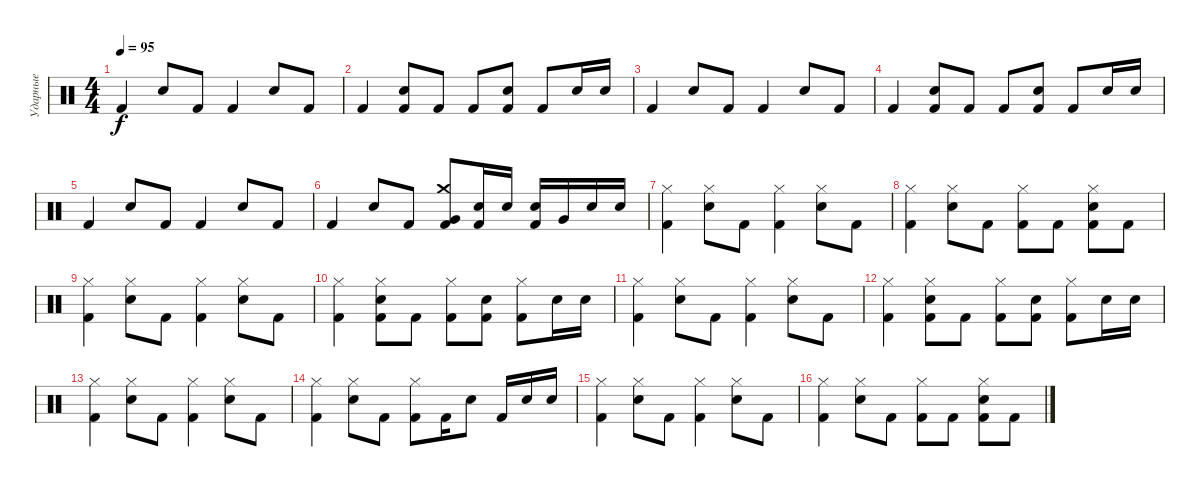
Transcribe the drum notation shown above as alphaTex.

\track ("Ударные" "Ударные") {instrument percussion}
\staff {score}
\articulation defaults
\ts (4 4)
\tempo 95
\clef neutral
\ks c "Kick (hit) 2".4{dy f} "Snare (hit) 2".8 "Kick (hit) 2".8 "Kick (hit) 2".4 "Snare (hit) 2".8 "Kick (hit) 2".8
|
"Kick (hit) 2".4 ("Snare (hit) 2" "Kick (hit) 2").8 "Kick (hit) 2".8 "Kick (hit) 2".8 ("Snare (hit) 2" "Kick (hit) 2").8 "Kick (hit) 2".8 "Snare (hit) 2".16 "Snare (hit) 2".16 |
"Kick (hit) 2".4 "Snare (hit) 2".8 "Kick (hit) 2".8 "Kick (hit) 2".4 "Snare (hit) 2".8 "Kick (hit) 2".8 |
"Kick (hit) 2".4 ("Snare (hit) 2" "Kick (hit) 2").8 "Kick (hit) 2".8 "Kick (hit) 2".8 ("Snare (hit) 2" "Kick (hit) 2").8 "Kick (hit) 2".8 "Snare (hit) 2".16 "Snare (hit) 2".16 |
"Kick (hit) 2".4 "Snare (hit) 2".8 "Kick (hit) 2".8 "Kick (hit) 2".4 "Snare (hit) 2".8 "Kick (hit) 2".8 |
"Kick (hit) 2".4 "Snare (hit) 2".8 "Kick (hit) 2".8 ("Crash medium (hit)" "Very Low Tom (hit)" "Kick (hit) 2").8 ("Snare (hit) 2" "Kick (hit) 2").16 "Snare (hit) 2".16 ("Snare (hit) 2" "Kick (hit) 2").16 "Very Low Tom (hit)".16 "Snare (hit) 2".16 "Snare (hit) 2".16 |
("Hi-Hat (closed)" "Kick (hit) 2").4 ("Hi-Hat (closed)" "Snare (hit) 2").8 "Kick (hit) 2".8 ("Hi-Hat (closed)" "Kick (hit) 2").4 ("Hi-Hat (closed)" "Snare (hit) 2").8 "Kick (hit) 2".8 |
("Hi-Hat (closed)" "Kick (hit) 2").4 ("Hi-Hat (closed)" "Snare (hit) 2").8 "Kick (hit) 2".8 ("Hi-Hat (closed)" "Kick (hit) 2").8 "Kick (hit) 2".8 ("Hi-Hat (closed)" "Snare (hit) 2" "Kick (hit) 2").8 "Kick (hit) 2".8 |
("Hi-Hat (closed)" "Kick (hit) 2").4 ("Hi-Hat (closed)" "Snare (hit) 2").8 "Kick (hit) 2".8 ("Hi-Hat (closed)" "Kick (hit) 2").4 ("Hi-Hat (closed)" "Snare (hit) 2").8 "Kick (hit) 2".8 |
("Hi-Hat (closed)" "Kick (hit) 2").4 ("Hi-Hat (closed)" "Snare (hit) 2" "Kick (hit) 2").8 "Kick (hit) 2".8 ("Hi-Hat (closed)" "Kick (hit) 2").8 ("Snare (hit) 2" "Kick (hit) 2").8 ("Hi-Hat (closed)" "Kick (hit) 2").8 "Snare (hit) 2".16 "Snare (hit) 2".16 |
("Hi-Hat (closed)" "Kick (hit) 2").4 ("Hi-Hat (closed)" "Snare (hit) 2").8 "Kick (hit) 2".8 ("Hi-Hat (closed)" "Kick (hit) 2").4 ("Hi-Hat (closed)" "Snare (hit) 2").8 "Kick (hit) 2".8 |
("Hi-Hat (closed)" "Kick (hit) 2").4 ("Hi-Hat (closed)" "Snare (hit) 2" "Kick (hit) 2").8 "Kick (hit) 2".8 ("Hi-Hat (closed)" "Kick (hit) 2").8 ("Snare (hit) 2" "Kick (hit) 2").8 ("Hi-Hat (closed)" "Kick (hit) 2").8 "Snare (hit) 2".16 "Snare (hit) 2".16 |
("Hi-Hat (closed)" "Kick (hit) 2").4 ("Hi-Hat (closed)" "Snare (hit) 2").8 "Kick (hit) 2".8 ("Hi-Hat (closed)" "Kick (hit) 2").4 ("Hi-Hat (closed)" "Snare (hit) 2").8 "Kick (hit) 2".8 |
("Hi-Hat (closed)" "Kick (hit) 2").4 ("Hi-Hat (closed)" "Snare (hit) 2").8 "Kick (hit) 2".8 ("Hi-Hat (closed)" "Kick (hit) 2").8 "Kick (hit) 2".16 "Snare (hit) 2".8 "Kick (hit) 2".16 "Snare (hit) 2".16 "Snare (hit) 2".16 |
("Hi-Hat (closed)" "Kick (hit) 2").4 ("Hi-Hat (closed)" "Snare (hit) 2").8 "Kick (hit) 2".8 ("Hi-Hat (closed)" "Kick (hit) 2").4 ("Hi-Hat (closed)" "Snare (hit) 2").8 "Kick (hit) 2".8 |
("Hi-Hat (closed)" "Kick (hit) 2").4 ("Hi-Hat (closed)" "Snare (hit) 2").8 "Kick (hit) 2".8 ("Hi-Hat (closed)" "Kick (hit) 2").8 "Kick (hit) 2".8 ("Hi-Hat (closed)" "Snare (hit) 2" "Kick (hit) 2").8 "Kick (hit) 2".8
